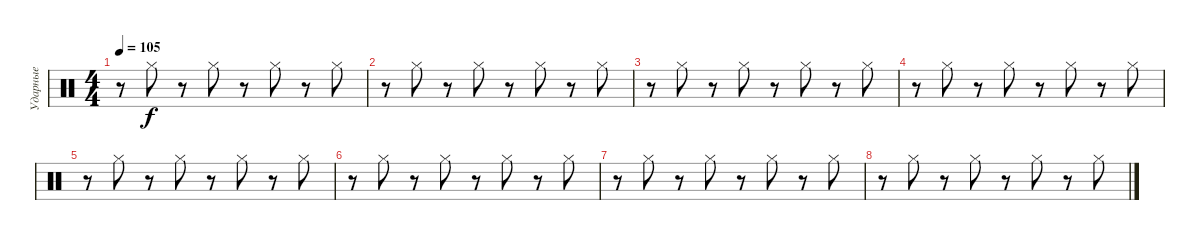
\track ("Ударные" "Ударные") {instrument percussion}
\staff {score}
\articulation defaults
\ts (4 4)
\tempo 105
\clef neutral
\ks c
r.8{dy f} "Hi-Hat (closed)".8 r.8 "Hi-Hat (closed)".8 r.8 "Hi-Hat (closed)".8 r.8 "Hi-Hat (closed)".8 |
r.8 "Hi-Hat (closed)".8 r.8 "Hi-Hat (closed)".8 r.8 "Hi-Hat (closed)".8 r.8 "Hi-Hat (closed)".8 |
r.8 "Hi-Hat (closed)".8 r.8 "Hi-Hat (closed)".8 r.8 "Hi-Hat (closed)".8 r.8 "Hi-Hat (closed)".8 |
r.8 "Hi-Hat (closed)".8 r.8 "Hi-Hat (closed)".8 r.8 "Hi-Hat (closed)".8 r.8 "Hi-Hat (closed)".8 |
r.8 "Hi-Hat (closed)".8 r.8 "Hi-Hat (closed)".8 r.8 "Hi-Hat (closed)".8 r.8 "Hi-Hat (closed)".8 |
r.8 "Hi-Hat (closed)".8 r.8 "Hi-Hat (closed)".8 r.8 "Hi-Hat (closed)".8 r.8 "Hi-Hat (closed)".8 |
r.8 "Hi-Hat (closed)".8 r.8 "Hi-Hat (closed)".8 r.8 "Hi-Hat (closed)".8 r.8 "Hi-Hat (closed)".8 |
r.8 "Hi-Hat (closed)".8 r.8 "Hi-Hat (closed)".8 r.8 "Hi-Hat (closed)".8 r.8 "Hi-Hat (closed)".8
